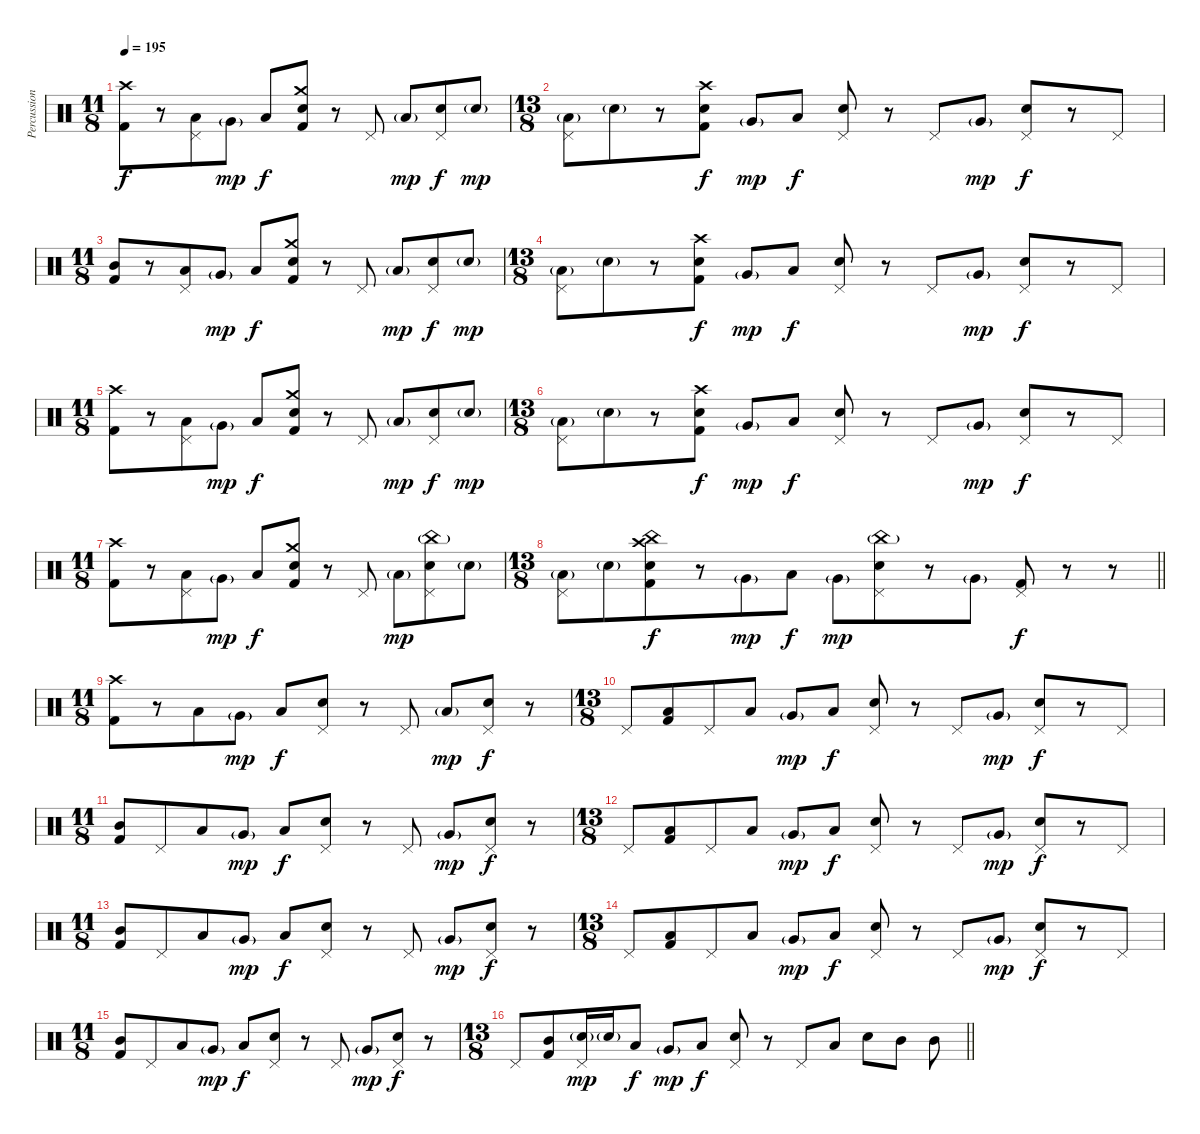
\track ("Percussion" "Percussion") {instrument percussion bank 237}
\staff {score}
\articulation defaults
\ts (11 8)
\section ("" "")
\tempo 195
\clef neutral
\ks c
("Crash high (hit)" "Kick (hit) 2").8{dy f beam merge} r.8{beam merge} ("Pedal Hi-Hat (hit)" "Low Tom (hit)").8 "Very Low Tom (hit)"{g}.8{dy mp} "Low Floor Tom (hit)".8{dy f} ("Crash medium (hit)" "Electric Snare (hit)" "Kick (hit) 2").8 r.8 "Pedal Hi-Hat (hit)".8 "Low Floor Tom (hit)"{g}.8{dy mp} ("Pedal Hi-Hat (hit)" "Electric Snare (hit)").8{dy f beam merge} "Electric Snare (hit)"{g}.8{dy mp} |
\ts (13 8)
("Pedal Hi-Hat (hit)" "Low Floor Tom (hit)"{g}).8 "Electric Snare (hit)"{g}.8{beam merge} r.8{beam merge} ("Crash high (hit)" "Electric Snare (hit)" "Kick (hit) 2").8{dy f} "Very Low Tom (hit)"{g}.8{dy mp} "Low Floor Tom (hit)".8{dy f} ("Pedal Hi-Hat (hit)" "Electric Snare (hit)").8 r.8{beam merge} "Pedal Hi-Hat (hit)".8 "Very Low Tom (hit)"{g}.8{dy mp} ("Pedal Hi-Hat (hit)" "Electric Snare (hit)").8{dy f beam merge} r.8{beam merge} "Pedal Hi-Hat (hit)".8 |
\ts (11 8)
("Mid Tom (hit)" "Kick (hit) 2").8{beam merge} r.8{beam merge} ("Pedal Hi-Hat (hit)" "Low Tom (hit)").8 "Very Low Tom (hit)"{g}.8{dy mp} "Low Floor Tom (hit)".8{dy f} ("Crash medium (hit)" "Electric Snare (hit)" "Kick (hit) 2").8 r.8 "Pedal Hi-Hat (hit)".8 "Low Floor Tom (hit)"{g}.8{dy mp} ("Pedal Hi-Hat (hit)" "Electric Snare (hit)").8{dy f beam merge} "Electric Snare (hit)"{g}.8{dy mp} |
\ts (13 8)
("Pedal Hi-Hat (hit)" "Low Floor Tom (hit)"{g}).8 "Electric Snare (hit)"{g}.8{beam merge} r.8{beam merge} ("Crash high (hit)" "Electric Snare (hit)" "Kick (hit) 2").8{dy f} "Very Low Tom (hit)"{g}.8{dy mp} "Low Floor Tom (hit)".8{dy f} ("Pedal Hi-Hat (hit)" "Electric Snare (hit)").8 r.8{beam merge} "Pedal Hi-Hat (hit)".8 "Very Low Tom (hit)"{g}.8{dy mp} ("Pedal Hi-Hat (hit)" "Electric Snare (hit)").8{dy f beam merge} r.8{beam merge} "Pedal Hi-Hat (hit)".8 |
\ts (11 8)
("Crash high (hit)" "Kick (hit) 2").8{beam merge} r.8{beam merge} ("Pedal Hi-Hat (hit)" "Low Tom (hit)").8 "Very Low Tom (hit)"{g}.8{dy mp} "Low Floor Tom (hit)".8{dy f} ("Crash medium (hit)" "Electric Snare (hit)" "Kick (hit) 2").8 r.8 "Pedal Hi-Hat (hit)".8 "Low Floor Tom (hit)"{g}.8{dy mp} ("Pedal Hi-Hat (hit)" "Electric Snare (hit)").8{dy f beam merge} "Electric Snare (hit)"{g}.8{dy mp} |
\ts (13 8)
("Pedal Hi-Hat (hit)" "Low Floor Tom (hit)"{g}).8 "Electric Snare (hit)"{g}.8{beam merge} r.8{beam merge} ("Crash high (hit)" "Electric Snare (hit)" "Kick (hit) 2").8{dy f} "Very Low Tom (hit)"{g}.8{dy mp} "Low Floor Tom (hit)".8{dy f} ("Pedal Hi-Hat (hit)" "Electric Snare (hit)").8 r.8{beam merge} "Pedal Hi-Hat (hit)".8 "Very Low Tom (hit)"{g}.8{dy mp} ("Pedal Hi-Hat (hit)" "Electric Snare (hit)").8{dy f beam merge} r.8 "Pedal Hi-Hat (hit)".8 |
\ts (11 8)
("Crash high (hit)" "Kick (hit) 2").8{beam merge} r.8{beam merge} ("Pedal Hi-Hat (hit)" "Low Tom (hit)").8 "Very Low Tom (hit)"{g}.8{dy mp} "Low Floor Tom (hit)".8{dy f} ("Crash medium (hit)" "Electric Snare (hit)" "Kick (hit) 2").8 r.8 "Pedal Hi-Hat (hit)".8 "Low Floor Tom (hit)"{g}.8{dy mp} ("China (hit)"{g} "Pedal Hi-Hat (hit)" "Electric Snare (hit)").8{beam merge} "Electric Snare (hit)"{g}.8 |
\ts (13 8)
\barLineRight lightlight
("Pedal Hi-Hat (hit)" "Low Floor Tom (hit)"{g}).8 "Electric Snare (hit)"{g}.8{beam merge} ("China (hit)" "Crash high (hit)" "Electric Snare (hit)" "Kick (hit) 2").8{dy f beam merge} r.8 "Very Low Tom (hit)"{g}.8{dy mp} "Low Floor Tom (hit)".8{dy f} "Very Low Tom (hit)"{g}.8{dy mp} ("China (hit)"{g} "Pedal Hi-Hat (hit)" "Electric Snare (hit)").8{beam merge} r.8 "Very Low Tom (hit)"{g}.8 ("Pedal Hi-Hat (hit)" "Kick (hit) 2").8{dy f beam merge} r.8 r.8 |
\ts (11 8)
\section ("" "")
("Crash high (hit)" "Kick (hit) 2").8{beam merge} r.8{beam merge} "Low Tom (hit)".8 "Very Low Tom (hit)"{g}.8{dy mp} "Low Floor Tom (hit)".8{dy f} ("Pedal Hi-Hat (hit)" "Electric Snare (hit)").8 r.8 "Pedal Hi-Hat (hit)".8 "Low Floor Tom (hit)"{g}.8{dy mp} ("Pedal Hi-Hat (hit)" "Electric Snare (hit)").8{dy f beam merge} r.8 |
\ts (13 8)
"Pedal Hi-Hat (hit)".8 ("Low Floor Tom (hit)" "Kick (hit) 2").8{beam merge} "Pedal Hi-Hat (hit)".8{beam merge} "Low Tom (hit)".8 "Very Low Tom (hit)"{g}.8{dy mp} "Low Floor Tom (hit)".8{dy f} ("Pedal Hi-Hat (hit)" "Electric Snare (hit)").8 r.8{beam merge} "Pedal Hi-Hat (hit)".8 "Very Low Tom (hit)"{g}.8{dy mp} ("Pedal Hi-Hat (hit)" "Electric Snare (hit)").8{dy f beam merge} r.8 "Pedal Hi-Hat (hit)".8 |
\ts (11 8)
("Mid Tom (hit)" "Kick (hit) 2").8{beam merge} "Pedal Hi-Hat (hit)".8{beam merge} "Low Tom (hit)".8 "Very Low Tom (hit)"{g}.8{dy mp} "Low Floor Tom (hit)".8{dy f} ("Pedal Hi-Hat (hit)" "Electric Snare (hit)").8 r.8{beam merge} "Pedal Hi-Hat (hit)".8 "Very Low Tom (hit)"{g}.8{dy mp} ("Pedal Hi-Hat (hit)" "Electric Snare (hit)").8{dy f beam merge} r.8 |
\ts (13 8)
"Pedal Hi-Hat (hit)".8 ("Low Floor Tom (hit)" "Kick (hit) 2").8{beam merge} "Pedal Hi-Hat (hit)".8{beam merge} "Low Tom (hit)".8 "Very Low Tom (hit)"{g}.8{dy mp} "Low Floor Tom (hit)".8{dy f} ("Pedal Hi-Hat (hit)" "Electric Snare (hit)").8 r.8{beam merge} "Pedal Hi-Hat (hit)".8 "Very Low Tom (hit)"{g}.8{dy mp} ("Pedal Hi-Hat (hit)" "Electric Snare (hit)").8{dy f beam merge} r.8{beam merge} "Pedal Hi-Hat (hit)".8 |
\ts (11 8)
("Mid Tom (hit)" "Kick (hit) 2").8{beam merge} "Pedal Hi-Hat (hit)".8{beam merge} "Low Tom (hit)".8 "Very Low Tom (hit)"{g}.8{dy mp} "Low Floor Tom (hit)".8{dy f} ("Pedal Hi-Hat (hit)" "Electric Snare (hit)").8 r.8{beam merge} "Pedal Hi-Hat (hit)".8 "Very Low Tom (hit)"{g}.8{dy mp} ("Pedal Hi-Hat (hit)" "Electric Snare (hit)").8{dy f beam merge} r.8 |
\ts (13 8)
"Pedal Hi-Hat (hit)".8 ("Low Floor Tom (hit)" "Kick (hit) 2").8{beam merge} "Pedal Hi-Hat (hit)".8{beam merge} "Low Tom (hit)".8 "Very Low Tom (hit)"{g}.8{dy mp} "Low Floor Tom (hit)".8{dy f} ("Pedal Hi-Hat (hit)" "Electric Snare (hit)").8 r.8{beam merge} "Pedal Hi-Hat (hit)".8 "Very Low Tom (hit)"{g}.8{dy mp} ("Pedal Hi-Hat (hit)" "Electric Snare (hit)").8{dy f beam merge} r.8 "Pedal Hi-Hat (hit)".8 |
\ts (11 8)
("Mid Tom (hit)" "Kick (hit) 2").8{beam merge} "Pedal Hi-Hat (hit)".8{beam merge} "Low Tom (hit)".8 "Very Low Tom (hit)"{g}.8{dy mp} "Low Floor Tom (hit)".8{dy f} ("Pedal Hi-Hat (hit)" "Electric Snare (hit)").8 r.8{beam merge} "Pedal Hi-Hat (hit)".8 "Very Low Tom (hit)"{g}.8{dy mp} ("Pedal Hi-Hat (hit)" "Electric Snare (hit)").8{dy f beam merge} r.8 |
\ts (13 8)
\barLineRight lightlight "Pedal Hi-Hat (hit)".8
("Mid Tom (hit)" "Kick (hit) 2").8{beam merge} ("Pedal Hi-Hat (hit)" "Electric Snare (hit)"{g}).16{dy mp beam merge} "Electric Snare (hit)"{g}.16{beam merge} "Low Tom (hit)".8{dy f} "Very Low Tom (hit)"{g}.8{dy mp} "Low Floor Tom (hit)".8{dy f} ("Pedal Hi-Hat (hit)" "Electric Snare (hit)").8 r.8{beam merge} "Pedal Hi-Hat (hit)".8 "Low Floor Tom (hit)".8 "Electric Snare (hit)".8{beam merge} "Mid Tom (hit)".8 "Mid Tom (hit)".8
